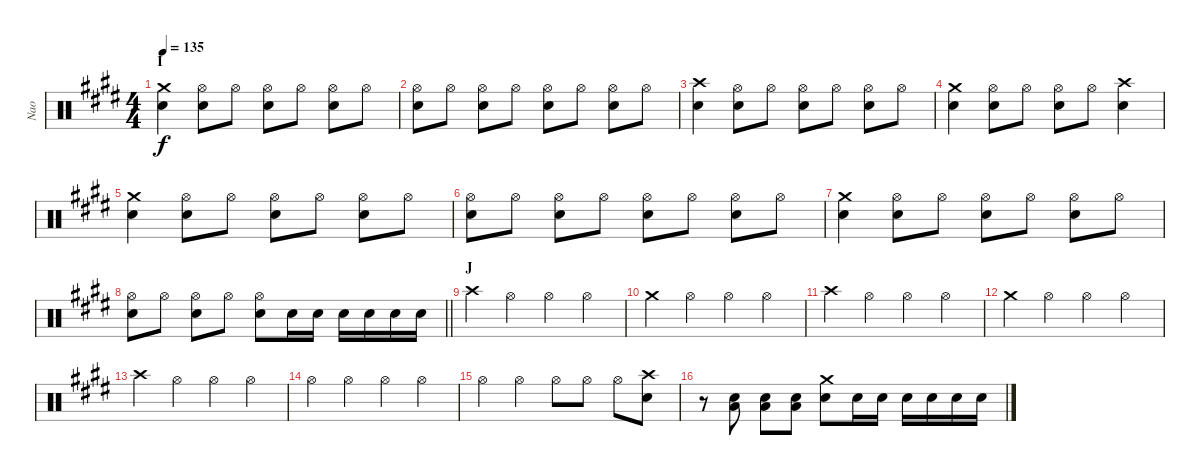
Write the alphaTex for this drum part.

\track ("Nao" "Nao") {instrument percussion}
\staff {score}
\articulation defaults
\ts (4 4)
\section ("" "I")
\tempo 135
\clef neutral
\ks e
("Crash medium (hit)" "Snare (hit) 2").4{dy f} ("Hi-Hat (open)" "Snare (hit) 2").8 "Hi-Hat (open)".8 ("Hi-Hat (open)" "Snare (hit) 2").8 "Hi-Hat (open)".8 ("Hi-Hat (open)" "Snare (hit) 2").8 "Hi-Hat (open)".8 |
("Hi-Hat (open)" "Snare (hit) 2").8 "Hi-Hat (open)".8 ("Hi-Hat (open)" "Snare (hit) 2").8 "Hi-Hat (open)".8 ("Hi-Hat (open)" "Snare (hit) 2").8 "Hi-Hat (open)".8 ("Hi-Hat (open)" "Snare (hit) 2").8 "Hi-Hat (open)".8 |
("Crash high (hit)" "Snare (hit) 2").4 ("Hi-Hat (open)" "Snare (hit) 2").8 "Hi-Hat (open)".8 ("Hi-Hat (open)" "Snare (hit) 2").8 "Hi-Hat (open)".8 ("Hi-Hat (open)" "Snare (hit) 2").8 "Hi-Hat (open)".8 |
("Crash medium (hit)" "Snare (hit) 2").4 ("Hi-Hat (open)" "Snare (hit) 2").8 "Hi-Hat (open)".8 ("Hi-Hat (open)" "Snare (hit) 2").8 "Hi-Hat (open)".8 ("Crash high (hit)" "Snare (hit) 2").4 |
("Crash medium (hit)" "Snare (hit) 2").4 ("Hi-Hat (open)" "Snare (hit) 2").8 "Hi-Hat (open)".8 ("Hi-Hat (open)" "Snare (hit) 2").8 "Hi-Hat (open)".8 ("Hi-Hat (open)" "Snare (hit) 2").8 "Hi-Hat (open)".8 |
("Hi-Hat (open)" "Snare (hit) 2").8 "Hi-Hat (open)".8 ("Hi-Hat (open)" "Snare (hit) 2").8 "Hi-Hat (open)".8 ("Hi-Hat (open)" "Snare (hit) 2").8 "Hi-Hat (open)".8 ("Hi-Hat (open)" "Snare (hit) 2").8 "Hi-Hat (open)".8 |
("Crash medium (hit)" "Snare (hit) 2").4 ("Hi-Hat (open)" "Snare (hit) 2").8 "Hi-Hat (open)".8 ("Hi-Hat (open)" "Snare (hit) 2").8 "Hi-Hat (open)".8 ("Hi-Hat (open)" "Snare (hit) 2").8 "Hi-Hat (open)".8 |
\barLineRight lightlight
("Hi-Hat (open)" "Snare (hit) 2").8 "Hi-Hat (open)".8 ("Hi-Hat (open)" "Snare (hit) 2").8 "Hi-Hat (open)".8 ("Hi-Hat (open)" "Snare (hit) 2").8 "Snare (hit) 2".16 "Snare (hit) 2".16 "Snare (hit) 2".16 "Snare (hit) 2".16 "Snare (hit) 2".16 "Snare (hit) 2".16 |
\section ("" "J")
"Crash high (hit)".4 "Hi-Hat (open)".4 "Hi-Hat (open)".4 "Hi-Hat (open)".4 |
"Crash medium (hit)".4 "Hi-Hat (open)".4 "Hi-Hat (open)".4 "Hi-Hat (open)".4 |
"Crash high (hit)".4 "Hi-Hat (open)".4 "Hi-Hat (open)".4 "Hi-Hat (open)".4 |
"Crash medium (hit)".4 "Hi-Hat (open)".4 "Hi-Hat (open)".4 "Hi-Hat (open)".4 |
"Crash high (hit)".4 "Hi-Hat (open)".4 "Hi-Hat (open)".4 "Hi-Hat (open)".4 |
"Hi-Hat (open)".4 "Hi-Hat (open)".4 "Hi-Hat (open)".4 "Hi-Hat (open)".4 |
"Hi-Hat (open)".4 "Hi-Hat (open)".4 "Hi-Hat (open)".8 "Hi-Hat (open)".8 "Hi-Hat (open)".8 ("Crash high (hit)" "Snare (hit) 2").8 |
r.8 ("Snare (hit) 2" "Low Tom (hit)").8 ("Snare (hit) 2" "Low Tom (hit)").8 ("Snare (hit) 2" "Low Tom (hit)").8 ("Crash medium (hit)" "Snare (hit) 2").8 "Snare (hit) 2".16 "Snare (hit) 2".16 "Snare (hit) 2".16 "Snare (hit) 2".16 "Snare (hit) 2".16 "Snare (hit) 2".16
